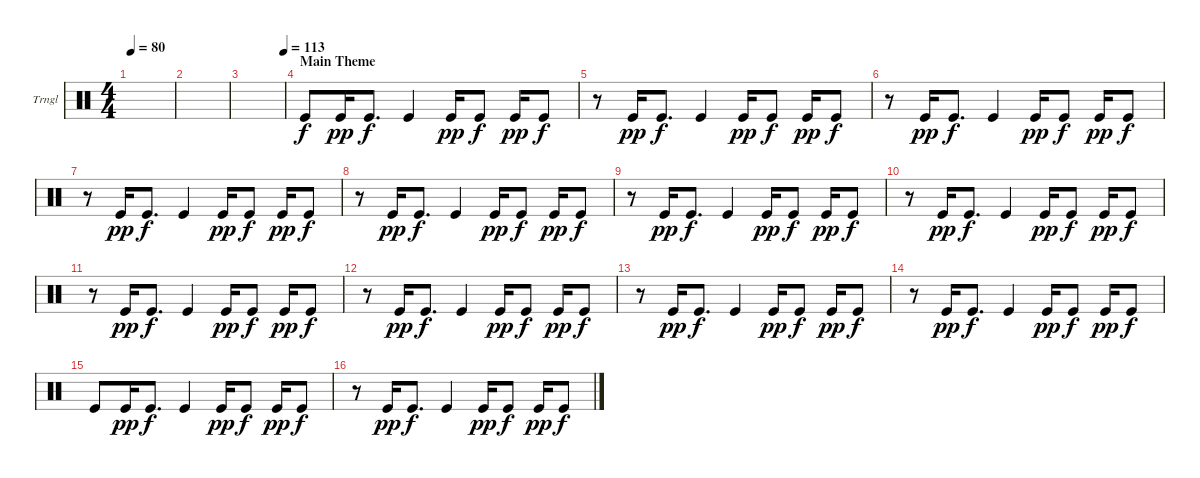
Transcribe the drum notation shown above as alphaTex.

\defaultSystemsLayout 4
\bracketExtendMode groupsimilarinstruments
\firstSystemTrackNameOrientation horizontal
\otherSystemsTrackNameOrientation horizontal
\track ("Triangle" "Trngl") {instrument percussion}
\staff {score}
\articulation defaults
\ts (4 4)
\tempo 80
\clef neutral
\scale
0.333333
\ks c
|
\scale
0.333333 |
\tempo (113 1)
|
\section ("" "Main Theme")
"Kick (hit)".8{dy f} "Kick (hit)".16{dy pp} "Kick (hit)".8{d dy f} "Kick (hit)".4 "Kick (hit)".16{dy pp} "Kick (hit)".8{dy f} "Kick (hit)".16{dy pp} "Kick (hit)".8{dy f} |
r.8 "Kick (hit)".16{dy pp} "Kick (hit)".8{d dy f} "Kick (hit)".4 "Kick (hit)".16{dy pp} "Kick (hit)".8{dy f} "Kick (hit)".16{dy pp} "Kick (hit)".8{dy f} |
r.8 "Kick (hit)".16{dy pp} "Kick (hit)".8{d dy f} "Kick (hit)".4 "Kick (hit)".16{dy pp} "Kick (hit)".8{dy f} "Kick (hit)".16{dy pp} "Kick (hit)".8{dy f} |
r.8 "Kick (hit)".16{dy pp} "Kick (hit)".8{d dy f} "Kick (hit)".4 "Kick (hit)".16{dy pp} "Kick (hit)".8{dy f} "Kick (hit)".16{dy pp} "Kick (hit)".8{dy f} |
r.8 "Kick (hit)".16{dy pp} "Kick (hit)".8{d dy f} "Kick (hit)".4 "Kick (hit)".16{dy pp} "Kick (hit)".8{dy f} "Kick (hit)".16{dy pp} "Kick (hit)".8{dy f} |
r.8 "Kick (hit)".16{dy pp} "Kick (hit)".8{d dy f} "Kick (hit)".4 "Kick (hit)".16{dy pp} "Kick (hit)".8{dy f} "Kick (hit)".16{dy pp} "Kick (hit)".8{dy f} |
r.8 "Kick (hit)".16{dy pp} "Kick (hit)".8{d dy f} "Kick (hit)".4 "Kick (hit)".16{dy pp} "Kick (hit)".8{dy f} "Kick (hit)".16{dy pp} "Kick (hit)".8{dy f} |
r.8 "Kick (hit)".16{dy pp} "Kick (hit)".8{d dy f} "Kick (hit)".4 "Kick (hit)".16{dy pp} "Kick (hit)".8{dy f} "Kick (hit)".16{dy pp} "Kick (hit)".8{dy f} |
r.8 "Kick (hit)".16{dy pp} "Kick (hit)".8{d dy f} "Kick (hit)".4 "Kick (hit)".16{dy pp} "Kick (hit)".8{dy f} "Kick (hit)".16{dy pp} "Kick (hit)".8{dy f} |
r.8 "Kick (hit)".16{dy pp} "Kick (hit)".8{d dy f} "Kick (hit)".4 "Kick (hit)".16{dy pp} "Kick (hit)".8{dy f} "Kick (hit)".16{dy pp} "Kick (hit)".8{dy f} |
r.8 "Kick (hit)".16{dy pp} "Kick (hit)".8{d dy f} "Kick (hit)".4 "Kick (hit)".16{dy pp} "Kick (hit)".8{dy f} "Kick (hit)".16{dy pp} "Kick (hit)".8{dy f} |
"Kick (hit)".8 "Kick (hit)".16{dy pp} "Kick (hit)".8{d dy f} "Kick (hit)".4 "Kick (hit)".16{dy pp} "Kick (hit)".8{dy f} "Kick (hit)".16{dy pp} "Kick (hit)".8{dy f} |
r.8 "Kick (hit)".16{dy pp} "Kick (hit)".8{d dy f} "Kick (hit)".4 "Kick (hit)".16{dy pp} "Kick (hit)".8{dy f} "Kick (hit)".16{dy pp} "Kick (hit)".8{dy f}
